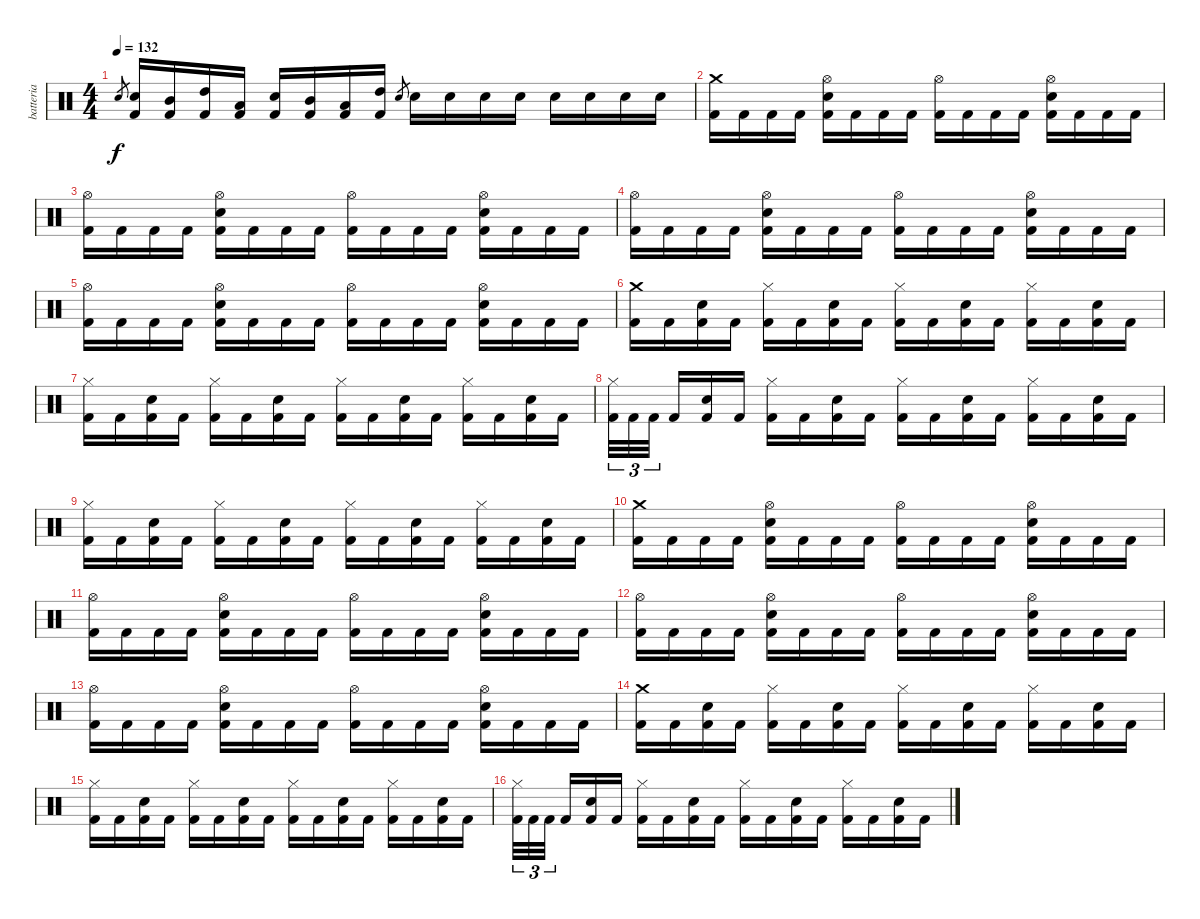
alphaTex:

\track ("batteria" "batteria") {instrument percussion}
\staff {score}
\articulation defaults
\ts (4 4)
\tempo 132
\clef neutral
\ks c "Snare (hit) 2".8{gr dy f}
("Snare (hit) 2" "Kick (hit) 2").16 ("Kick (hit) 2" "Mid Tom (hit)").16 ("Kick (hit) 2" "High Tom (hit)").16 ("Kick (hit) 2" "Low Tom (hit)").16 ("Snare (hit) 2" "Kick (hit) 2").16 ("Kick (hit) 2" "Mid Tom (hit)").16 ("Kick (hit) 2" "Low Tom (hit)").16 ("Kick (hit) 2" "High Tom (hit)").16 "Snare (hit) 2".8{gr} "Snare (hit) 2".16 "Snare (hit) 2".16 "Snare (hit) 2".16 "Snare (hit) 2".16 "Snare (hit) 2".16 "Snare (hit) 2".16 "Snare (hit) 2".16 "Snare (hit) 2".16 |
("Kick (hit) 2" "Crash medium (hit)").16 "Kick (hit) 2".16 "Kick (hit) 2".16 "Kick (hit) 2".16 ("Kick (hit) 2" "Hi-Hat (open)" "Snare (hit) 2").16 "Kick (hit) 2".16 "Kick (hit) 2".16 "Kick (hit) 2".16 ("Kick (hit) 2" "Hi-Hat (open)").16 "Kick (hit) 2".16 "Kick (hit) 2".16 "Kick (hit) 2".16 ("Kick (hit) 2" "Hi-Hat (open)" "Snare (hit) 2").16 "Kick (hit) 2".16 "Kick (hit) 2".16 "Kick (hit) 2".16 |
("Kick (hit) 2" "Hi-Hat (open)").16 "Kick (hit) 2".16 "Kick (hit) 2".16 "Kick (hit) 2".16 ("Kick (hit) 2" "Hi-Hat (open)" "Snare (hit) 2").16 "Kick (hit) 2".16 "Kick (hit) 2".16 "Kick (hit) 2".16 ("Kick (hit) 2" "Hi-Hat (open)").16 "Kick (hit) 2".16 "Kick (hit) 2".16 "Kick (hit) 2".16 ("Kick (hit) 2" "Hi-Hat (open)" "Snare (hit) 2").16 "Kick (hit) 2".16 "Kick (hit) 2".16 "Kick (hit) 2".16 |
("Kick (hit) 2" "Hi-Hat (open)").16 "Kick (hit) 2".16 "Kick (hit) 2".16 "Kick (hit) 2".16 ("Kick (hit) 2" "Hi-Hat (open)" "Snare (hit) 2").16 "Kick (hit) 2".16 "Kick (hit) 2".16 "Kick (hit) 2".16 ("Kick (hit) 2" "Hi-Hat (open)").16 "Kick (hit) 2".16 "Kick (hit) 2".16 "Kick (hit) 2".16 ("Kick (hit) 2" "Hi-Hat (open)" "Snare (hit) 2").16 "Kick (hit) 2".16 "Kick (hit) 2".16 "Kick (hit) 2".16 |
("Kick (hit) 2" "Hi-Hat (open)").16 "Kick (hit) 2".16 "Kick (hit) 2".16 "Kick (hit) 2".16 ("Kick (hit) 2" "Hi-Hat (open)" "Snare (hit) 2").16 "Kick (hit) 2".16 "Kick (hit) 2".16 "Kick (hit) 2".16 ("Kick (hit) 2" "Hi-Hat (open)").16 "Kick (hit) 2".16 "Kick (hit) 2".16 "Kick (hit) 2".16 ("Kick (hit) 2" "Hi-Hat (open)" "Snare (hit) 2").16 "Kick (hit) 2".16 "Kick (hit) 2".16 "Kick (hit) 2".16 |
("Kick (hit) 2" "Crash medium (hit)").16 "Kick (hit) 2".16 ("Kick (hit) 2" "Snare (hit) 2").16 "Kick (hit) 2".16 ("Kick (hit) 2" "Hi-Hat (closed)").16 "Kick (hit) 2".16 ("Kick (hit) 2" "Snare (hit) 2").16 "Kick (hit) 2".16 ("Kick (hit) 2" "Hi-Hat (closed)").16 "Kick (hit) 2".16 ("Kick (hit) 2" "Snare (hit) 2").16 "Kick (hit) 2".16 ("Kick (hit) 2" "Hi-Hat (closed)").16 "Kick (hit) 2".16 ("Kick (hit) 2" "Snare (hit) 2").16 "Kick (hit) 2".16 |
("Kick (hit) 2" "Hi-Hat (closed)").16 "Kick (hit) 2".16 ("Kick (hit) 2" "Snare (hit) 2").16 "Kick (hit) 2".16 ("Kick (hit) 2" "Hi-Hat (closed)").16 "Kick (hit) 2".16 ("Kick (hit) 2" "Snare (hit) 2").16 "Kick (hit) 2".16 ("Kick (hit) 2" "Hi-Hat (closed)").16 "Kick (hit) 2".16 ("Kick (hit) 2" "Snare (hit) 2").16 "Kick (hit) 2".16 ("Kick (hit) 2" "Hi-Hat (closed)").16 "Kick (hit) 2".16 ("Kick (hit) 2" "Snare (hit) 2").16 "Kick (hit) 2".16 |
("Kick (hit) 2" "Hi-Hat (closed)").32{tu (3 2)} "Kick (hit) 2".32{tu (3 2)} "Kick (hit) 2".32{tu (3 2) beam splitsecondary} "Kick (hit) 2".16 ("Kick (hit) 2" "Snare (hit) 2").16 "Kick (hit) 2".16 ("Kick (hit) 2" "Hi-Hat (closed)").16 "Kick (hit) 2".16 ("Kick (hit) 2" "Snare (hit) 2").16 "Kick (hit) 2".16 ("Kick (hit) 2" "Hi-Hat (closed)").16 "Kick (hit) 2".16 ("Kick (hit) 2" "Snare (hit) 2").16 "Kick (hit) 2".16 ("Kick (hit) 2" "Hi-Hat (closed)").16 "Kick (hit) 2".16 ("Kick (hit) 2" "Snare (hit) 2").16 "Kick (hit) 2".16 |
("Kick (hit) 2" "Hi-Hat (closed)").16 "Kick (hit) 2".16 ("Kick (hit) 2" "Snare (hit) 2").16 "Kick (hit) 2".16 ("Kick (hit) 2" "Hi-Hat (closed)").16 "Kick (hit) 2".16 ("Kick (hit) 2" "Snare (hit) 2").16 "Kick (hit) 2".16 ("Kick (hit) 2" "Hi-Hat (closed)").16 "Kick (hit) 2".16 ("Kick (hit) 2" "Snare (hit) 2").16 "Kick (hit) 2".16 ("Kick (hit) 2" "Hi-Hat (closed)").16 "Kick (hit) 2".16 ("Kick (hit) 2" "Snare (hit) 2").16 "Kick (hit) 2".16 |
("Kick (hit) 2" "Crash medium (hit)").16 "Kick (hit) 2".16 "Kick (hit) 2".16 "Kick (hit) 2".16 ("Kick (hit) 2" "Hi-Hat (open)" "Snare (hit) 2").16 "Kick (hit) 2".16 "Kick (hit) 2".16 "Kick (hit) 2".16 ("Kick (hit) 2" "Hi-Hat (open)").16 "Kick (hit) 2".16 "Kick (hit) 2".16 "Kick (hit) 2".16 ("Kick (hit) 2" "Hi-Hat (open)" "Snare (hit) 2").16 "Kick (hit) 2".16 "Kick (hit) 2".16 "Kick (hit) 2".16 |
("Kick (hit) 2" "Hi-Hat (open)").16 "Kick (hit) 2".16 "Kick (hit) 2".16 "Kick (hit) 2".16 ("Kick (hit) 2" "Hi-Hat (open)" "Snare (hit) 2").16 "Kick (hit) 2".16 "Kick (hit) 2".16 "Kick (hit) 2".16 ("Kick (hit) 2" "Hi-Hat (open)").16 "Kick (hit) 2".16 "Kick (hit) 2".16 "Kick (hit) 2".16 ("Kick (hit) 2" "Hi-Hat (open)" "Snare (hit) 2").16 "Kick (hit) 2".16 "Kick (hit) 2".16 "Kick (hit) 2".16 |
("Kick (hit) 2" "Hi-Hat (open)").16 "Kick (hit) 2".16 "Kick (hit) 2".16 "Kick (hit) 2".16 ("Kick (hit) 2" "Hi-Hat (open)" "Snare (hit) 2").16 "Kick (hit) 2".16 "Kick (hit) 2".16 "Kick (hit) 2".16 ("Kick (hit) 2" "Hi-Hat (open)").16 "Kick (hit) 2".16 "Kick (hit) 2".16 "Kick (hit) 2".16 ("Kick (hit) 2" "Hi-Hat (open)" "Snare (hit) 2").16 "Kick (hit) 2".16 "Kick (hit) 2".16 "Kick (hit) 2".16 |
("Kick (hit) 2" "Hi-Hat (open)").16 "Kick (hit) 2".16 "Kick (hit) 2".16 "Kick (hit) 2".16 ("Kick (hit) 2" "Hi-Hat (open)" "Snare (hit) 2").16 "Kick (hit) 2".16 "Kick (hit) 2".16 "Kick (hit) 2".16 ("Kick (hit) 2" "Hi-Hat (open)").16 "Kick (hit) 2".16 "Kick (hit) 2".16 "Kick (hit) 2".16 ("Kick (hit) 2" "Hi-Hat (open)" "Snare (hit) 2").16 "Kick (hit) 2".16 "Kick (hit) 2".16 "Kick (hit) 2".16 |
("Kick (hit) 2" "Crash medium (hit)").16 "Kick (hit) 2".16 ("Kick (hit) 2" "Snare (hit) 2").16 "Kick (hit) 2".16 ("Kick (hit) 2" "Hi-Hat (closed)").16 "Kick (hit) 2".16 ("Kick (hit) 2" "Snare (hit) 2").16 "Kick (hit) 2".16 ("Kick (hit) 2" "Hi-Hat (closed)").16 "Kick (hit) 2".16 ("Kick (hit) 2" "Snare (hit) 2").16 "Kick (hit) 2".16 ("Kick (hit) 2" "Hi-Hat (closed)").16 "Kick (hit) 2".16 ("Kick (hit) 2" "Snare (hit) 2").16 "Kick (hit) 2".16 |
("Kick (hit) 2" "Hi-Hat (closed)").16 "Kick (hit) 2".16 ("Kick (hit) 2" "Snare (hit) 2").16 "Kick (hit) 2".16 ("Kick (hit) 2" "Hi-Hat (closed)").16 "Kick (hit) 2".16 ("Kick (hit) 2" "Snare (hit) 2").16 "Kick (hit) 2".16 ("Kick (hit) 2" "Hi-Hat (closed)").16 "Kick (hit) 2".16 ("Kick (hit) 2" "Snare (hit) 2").16 "Kick (hit) 2".16 ("Kick (hit) 2" "Hi-Hat (closed)").16 "Kick (hit) 2".16 ("Kick (hit) 2" "Snare (hit) 2").16 "Kick (hit) 2".16 |
("Kick (hit) 2" "Hi-Hat (closed)").32{tu (3 2)} "Kick (hit) 2".32{tu (3 2)} "Kick (hit) 2".32{tu (3 2) beam splitsecondary} "Kick (hit) 2".16 ("Kick (hit) 2" "Snare (hit) 2").16 "Kick (hit) 2".16 ("Kick (hit) 2" "Hi-Hat (closed)").16 "Kick (hit) 2".16 ("Kick (hit) 2" "Snare (hit) 2").16 "Kick (hit) 2".16 ("Kick (hit) 2" "Hi-Hat (closed)").16 "Kick (hit) 2".16 ("Kick (hit) 2" "Snare (hit) 2").16 "Kick (hit) 2".16 ("Kick (hit) 2" "Hi-Hat (closed)").16 "Kick (hit) 2".16 ("Kick (hit) 2" "Snare (hit) 2").16 "Kick (hit) 2".16
